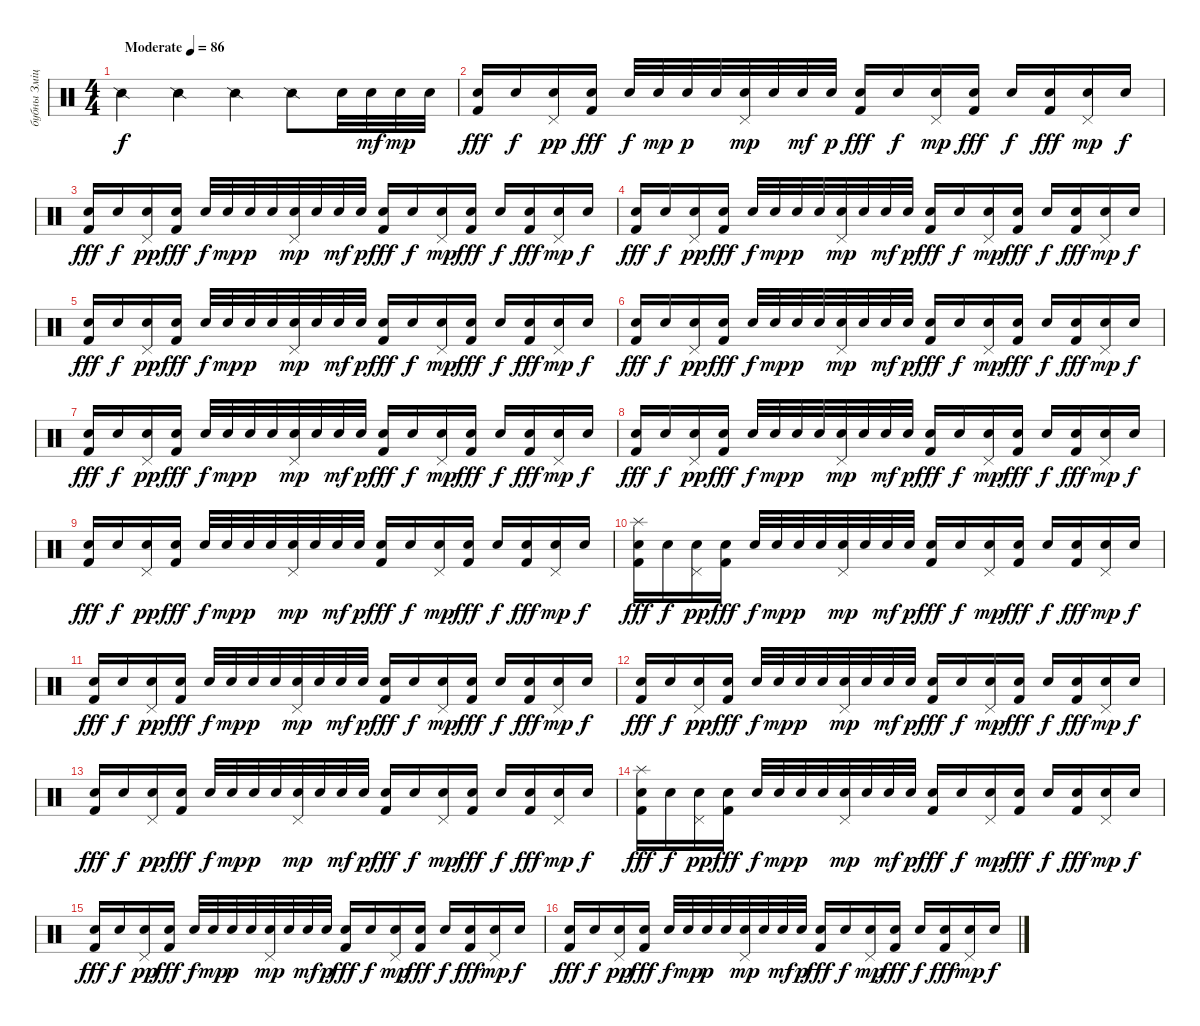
\track ("бубны Змiцер" "бубны Змiц") {instrument percussion}
\staff {score}
\articulation defaults
\ts (4 4)
\tempo (86 "Moderate")
\clef neutral
\ks c "Snare (side stick) 2".4{dy f} "Snare (side stick) 2".4 "Snare (side stick) 2".4 "Snare (side stick) 2".8 "Electric Snare (hit)".32 "Electric Snare (hit)".32{dy mf} "Electric Snare (hit)".32{dy mp} "Electric Snare (hit)".32
|
("Electric Snare (hit)" "Kick (hit) 2").16{dy fff} "Electric Snare (hit)".16{dy f} ("Pedal Hi-Hat (hit)" "Electric Snare (hit)").16{dy pp} ("Electric Snare (hit)" "Kick (hit) 2").16{dy fff} "Electric Snare (hit)".32{dy f} "Electric Snare (hit)".32{dy mp} "Electric Snare (hit)".32{dy p} "Electric Snare (hit)".32 ("Pedal Hi-Hat (hit)" "Electric Snare (hit)").32{dy mp} "Electric Snare (hit)".32 "Electric Snare (hit)".32{dy mf} "Electric Snare (hit)".32{dy p} ("Electric Snare (hit)" "Kick (hit) 2").16{dy fff} "Electric Snare (hit)".16{dy f} ("Pedal Hi-Hat (hit)" "Electric Snare (hit)").16{dy mp} ("Electric Snare (hit)" "Kick (hit) 2").16{dy fff} "Electric Snare (hit)".16{dy f} ("Electric Snare (hit)" "Kick (hit) 2").16{dy fff} ("Pedal Hi-Hat (hit)" "Electric Snare (hit)").16{dy mp} "Electric Snare (hit)".16{dy f} |
("Electric Snare (hit)" "Kick (hit) 2").16{dy fff} "Electric Snare (hit)".16{dy f} ("Pedal Hi-Hat (hit)" "Electric Snare (hit)").16{dy pp} ("Electric Snare (hit)" "Kick (hit) 2").16{dy fff} "Electric Snare (hit)".32{dy f} "Electric Snare (hit)".32{dy mp} "Electric Snare (hit)".32{dy p} "Electric Snare (hit)".32 ("Pedal Hi-Hat (hit)" "Electric Snare (hit)").32{dy mp} "Electric Snare (hit)".32 "Electric Snare (hit)".32{dy mf} "Electric Snare (hit)".32{dy p} ("Electric Snare (hit)" "Kick (hit) 2").16{dy fff} "Electric Snare (hit)".16{dy f} ("Pedal Hi-Hat (hit)" "Electric Snare (hit)").16{dy mp} ("Electric Snare (hit)" "Kick (hit) 2").16{dy fff} "Electric Snare (hit)".16{dy f} ("Electric Snare (hit)" "Kick (hit) 2").16{dy fff} ("Pedal Hi-Hat (hit)" "Electric Snare (hit)").16{dy mp} "Electric Snare (hit)".16{dy f} |
("Electric Snare (hit)" "Kick (hit) 2").16{dy fff} "Electric Snare (hit)".16{dy f} ("Pedal Hi-Hat (hit)" "Electric Snare (hit)").16{dy pp} ("Electric Snare (hit)" "Kick (hit) 2").16{dy fff} "Electric Snare (hit)".32{dy f} "Electric Snare (hit)".32{dy mp} "Electric Snare (hit)".32{dy p} "Electric Snare (hit)".32 ("Pedal Hi-Hat (hit)" "Electric Snare (hit)").32{dy mp} "Electric Snare (hit)".32 "Electric Snare (hit)".32{dy mf} "Electric Snare (hit)".32{dy p} ("Electric Snare (hit)" "Kick (hit) 2").16{dy fff} "Electric Snare (hit)".16{dy f} ("Pedal Hi-Hat (hit)" "Electric Snare (hit)").16{dy mp} ("Electric Snare (hit)" "Kick (hit) 2").16{dy fff} "Electric Snare (hit)".16{dy f} ("Electric Snare (hit)" "Kick (hit) 2").16{dy fff} ("Pedal Hi-Hat (hit)" "Electric Snare (hit)").16{dy mp} "Electric Snare (hit)".16{dy f} |
("Electric Snare (hit)" "Kick (hit) 2").16{dy fff} "Electric Snare (hit)".16{dy f} ("Pedal Hi-Hat (hit)" "Electric Snare (hit)").16{dy pp} ("Electric Snare (hit)" "Kick (hit) 2").16{dy fff} "Electric Snare (hit)".32{dy f} "Electric Snare (hit)".32{dy mp} "Electric Snare (hit)".32{dy p} "Electric Snare (hit)".32 ("Pedal Hi-Hat (hit)" "Electric Snare (hit)").32{dy mp} "Electric Snare (hit)".32 "Electric Snare (hit)".32{dy mf} "Electric Snare (hit)".32{dy p} ("Electric Snare (hit)" "Kick (hit) 2").16{dy fff} "Electric Snare (hit)".16{dy f} ("Pedal Hi-Hat (hit)" "Electric Snare (hit)").16{dy mp} ("Electric Snare (hit)" "Kick (hit) 2").16{dy fff} "Electric Snare (hit)".16{dy f} ("Electric Snare (hit)" "Kick (hit) 2").16{dy fff} ("Pedal Hi-Hat (hit)" "Electric Snare (hit)").16{dy mp} "Electric Snare (hit)".16{dy f} |
("Electric Snare (hit)" "Kick (hit) 2").16{dy fff} "Electric Snare (hit)".16{dy f} ("Pedal Hi-Hat (hit)" "Electric Snare (hit)").16{dy pp} ("Electric Snare (hit)" "Kick (hit) 2").16{dy fff} "Electric Snare (hit)".32{dy f} "Electric Snare (hit)".32{dy mp} "Electric Snare (hit)".32{dy p} "Electric Snare (hit)".32 ("Pedal Hi-Hat (hit)" "Electric Snare (hit)").32{dy mp} "Electric Snare (hit)".32 "Electric Snare (hit)".32{dy mf} "Electric Snare (hit)".32{dy p} ("Electric Snare (hit)" "Kick (hit) 2").16{dy fff} "Electric Snare (hit)".16{dy f} ("Pedal Hi-Hat (hit)" "Electric Snare (hit)").16{dy mp} ("Electric Snare (hit)" "Kick (hit) 2").16{dy fff} "Electric Snare (hit)".16{dy f} ("Electric Snare (hit)" "Kick (hit) 2").16{dy fff} ("Pedal Hi-Hat (hit)" "Electric Snare (hit)").16{dy mp} "Electric Snare (hit)".16{dy f} |
("Electric Snare (hit)" "Kick (hit) 2").16{dy fff} "Electric Snare (hit)".16{dy f} ("Pedal Hi-Hat (hit)" "Electric Snare (hit)").16{dy pp} ("Electric Snare (hit)" "Kick (hit) 2").16{dy fff} "Electric Snare (hit)".32{dy f} "Electric Snare (hit)".32{dy mp} "Electric Snare (hit)".32{dy p} "Electric Snare (hit)".32 ("Pedal Hi-Hat (hit)" "Electric Snare (hit)").32{dy mp} "Electric Snare (hit)".32 "Electric Snare (hit)".32{dy mf} "Electric Snare (hit)".32{dy p} ("Electric Snare (hit)" "Kick (hit) 2").16{dy fff} "Electric Snare (hit)".16{dy f} ("Pedal Hi-Hat (hit)" "Electric Snare (hit)").16{dy mp} ("Electric Snare (hit)" "Kick (hit) 2").16{dy fff} "Electric Snare (hit)".16{dy f} ("Electric Snare (hit)" "Kick (hit) 2").16{dy fff} ("Pedal Hi-Hat (hit)" "Electric Snare (hit)").16{dy mp} "Electric Snare (hit)".16{dy f} |
("Electric Snare (hit)" "Kick (hit) 2").16{dy fff} "Electric Snare (hit)".16{dy f} ("Pedal Hi-Hat (hit)" "Electric Snare (hit)").16{dy pp} ("Electric Snare (hit)" "Kick (hit) 2").16{dy fff} "Electric Snare (hit)".32{dy f} "Electric Snare (hit)".32{dy mp} "Electric Snare (hit)".32{dy p} "Electric Snare (hit)".32 ("Pedal Hi-Hat (hit)" "Electric Snare (hit)").32{dy mp} "Electric Snare (hit)".32 "Electric Snare (hit)".32{dy mf} "Electric Snare (hit)".32{dy p} ("Electric Snare (hit)" "Kick (hit) 2").16{dy fff} "Electric Snare (hit)".16{dy f} ("Pedal Hi-Hat (hit)" "Electric Snare (hit)").16{dy mp} ("Electric Snare (hit)" "Kick (hit) 2").16{dy fff} "Electric Snare (hit)".16{dy f} ("Electric Snare (hit)" "Kick (hit) 2").16{dy fff} ("Pedal Hi-Hat (hit)" "Electric Snare (hit)").16{dy mp} "Electric Snare (hit)".16{dy f} |
("Electric Snare (hit)" "Kick (hit) 2").16{dy fff} "Electric Snare (hit)".16{dy f} ("Pedal Hi-Hat (hit)" "Electric Snare (hit)").16{dy pp} ("Electric Snare (hit)" "Kick (hit) 2").16{dy fff} "Electric Snare (hit)".32{dy f} "Electric Snare (hit)".32{dy mp} "Electric Snare (hit)".32{dy p} "Electric Snare (hit)".32 ("Pedal Hi-Hat (hit)" "Electric Snare (hit)").32{dy mp} "Electric Snare (hit)".32 "Electric Snare (hit)".32{dy mf} "Electric Snare (hit)".32{dy p} ("Electric Snare (hit)" "Kick (hit) 2").16{dy fff} "Electric Snare (hit)".16{dy f} ("Pedal Hi-Hat (hit)" "Electric Snare (hit)").16{dy mp} ("Electric Snare (hit)" "Kick (hit) 2").16{dy fff} "Electric Snare (hit)".16{dy f} ("Electric Snare (hit)" "Kick (hit) 2").16{dy fff} ("Pedal Hi-Hat (hit)" "Electric Snare (hit)").16{dy mp} "Electric Snare (hit)".16{dy f} |
("Splash (hit)" "Electric Snare (hit)" "Kick (hit) 2").16{dy fff} "Electric Snare (hit)".16{dy f} ("Pedal Hi-Hat (hit)" "Electric Snare (hit)").16{dy pp} ("Electric Snare (hit)" "Kick (hit) 2").16{dy fff} "Electric Snare (hit)".32{dy f} "Electric Snare (hit)".32{dy mp} "Electric Snare (hit)".32{dy p} "Electric Snare (hit)".32 ("Pedal Hi-Hat (hit)" "Electric Snare (hit)").32{dy mp} "Electric Snare (hit)".32 "Electric Snare (hit)".32{dy mf} "Electric Snare (hit)".32{dy p} ("Electric Snare (hit)" "Kick (hit) 2").16{dy fff} "Electric Snare (hit)".16{dy f} ("Pedal Hi-Hat (hit)" "Electric Snare (hit)").16{dy mp} ("Electric Snare (hit)" "Kick (hit) 2").16{dy fff} "Electric Snare (hit)".16{dy f} ("Electric Snare (hit)" "Kick (hit) 2").16{dy fff} ("Pedal Hi-Hat (hit)" "Electric Snare (hit)").16{dy mp} "Electric Snare (hit)".16{dy f} |
("Electric Snare (hit)" "Kick (hit) 2").16{dy fff} "Electric Snare (hit)".16{dy f} ("Pedal Hi-Hat (hit)" "Electric Snare (hit)").16{dy pp} ("Electric Snare (hit)" "Kick (hit) 2").16{dy fff} "Electric Snare (hit)".32{dy f} "Electric Snare (hit)".32{dy mp} "Electric Snare (hit)".32{dy p} "Electric Snare (hit)".32 ("Pedal Hi-Hat (hit)" "Electric Snare (hit)").32{dy mp} "Electric Snare (hit)".32 "Electric Snare (hit)".32{dy mf} "Electric Snare (hit)".32{dy p} ("Electric Snare (hit)" "Kick (hit) 2").16{dy fff} "Electric Snare (hit)".16{dy f} ("Pedal Hi-Hat (hit)" "Electric Snare (hit)").16{dy mp} ("Electric Snare (hit)" "Kick (hit) 2").16{dy fff} "Electric Snare (hit)".16{dy f} ("Electric Snare (hit)" "Kick (hit) 2").16{dy fff} ("Pedal Hi-Hat (hit)" "Electric Snare (hit)").16{dy mp} "Electric Snare (hit)".16{dy f} |
("Electric Snare (hit)" "Kick (hit) 2").16{dy fff} "Electric Snare (hit)".16{dy f} ("Pedal Hi-Hat (hit)" "Electric Snare (hit)").16{dy pp} ("Electric Snare (hit)" "Kick (hit) 2").16{dy fff} "Electric Snare (hit)".32{dy f} "Electric Snare (hit)".32{dy mp} "Electric Snare (hit)".32{dy p} "Electric Snare (hit)".32 ("Pedal Hi-Hat (hit)" "Electric Snare (hit)").32{dy mp} "Electric Snare (hit)".32 "Electric Snare (hit)".32{dy mf} "Electric Snare (hit)".32{dy p} ("Electric Snare (hit)" "Kick (hit) 2").16{dy fff} "Electric Snare (hit)".16{dy f} ("Pedal Hi-Hat (hit)" "Electric Snare (hit)").16{dy mp} ("Electric Snare (hit)" "Kick (hit) 2").16{dy fff} "Electric Snare (hit)".16{dy f} ("Electric Snare (hit)" "Kick (hit) 2").16{dy fff} ("Pedal Hi-Hat (hit)" "Electric Snare (hit)").16{dy mp} "Electric Snare (hit)".16{dy f} |
("Electric Snare (hit)" "Kick (hit) 2").16{dy fff} "Electric Snare (hit)".16{dy f} ("Pedal Hi-Hat (hit)" "Electric Snare (hit)").16{dy pp} ("Electric Snare (hit)" "Kick (hit) 2").16{dy fff} "Electric Snare (hit)".32{dy f} "Electric Snare (hit)".32{dy mp} "Electric Snare (hit)".32{dy p} "Electric Snare (hit)".32 ("Pedal Hi-Hat (hit)" "Electric Snare (hit)").32{dy mp} "Electric Snare (hit)".32 "Electric Snare (hit)".32{dy mf} "Electric Snare (hit)".32{dy p} ("Electric Snare (hit)" "Kick (hit) 2").16{dy fff} "Electric Snare (hit)".16{dy f} ("Pedal Hi-Hat (hit)" "Electric Snare (hit)").16{dy mp} ("Electric Snare (hit)" "Kick (hit) 2").16{dy fff} "Electric Snare (hit)".16{dy f} ("Electric Snare (hit)" "Kick (hit) 2").16{dy fff} ("Pedal Hi-Hat (hit)" "Electric Snare (hit)").16{dy mp} "Electric Snare (hit)".16{dy f} |
("Splash (hit)" "Electric Snare (hit)" "Kick (hit) 2").16{dy fff} "Electric Snare (hit)".16{dy f} ("Pedal Hi-Hat (hit)" "Electric Snare (hit)").16{dy pp} ("Electric Snare (hit)" "Kick (hit) 2").16{dy fff} "Electric Snare (hit)".32{dy f} "Electric Snare (hit)".32{dy mp} "Electric Snare (hit)".32{dy p} "Electric Snare (hit)".32 ("Pedal Hi-Hat (hit)" "Electric Snare (hit)").32{dy mp} "Electric Snare (hit)".32 "Electric Snare (hit)".32{dy mf} "Electric Snare (hit)".32{dy p} ("Electric Snare (hit)" "Kick (hit) 2").16{dy fff} "Electric Snare (hit)".16{dy f} ("Pedal Hi-Hat (hit)" "Electric Snare (hit)").16{dy mp} ("Electric Snare (hit)" "Kick (hit) 2").16{dy fff} "Electric Snare (hit)".16{dy f} ("Electric Snare (hit)" "Kick (hit) 2").16{dy fff} ("Pedal Hi-Hat (hit)" "Electric Snare (hit)").16{dy mp} "Electric Snare (hit)".16{dy f} |
("Electric Snare (hit)" "Kick (hit) 2").16{dy fff} "Electric Snare (hit)".16{dy f} ("Pedal Hi-Hat (hit)" "Electric Snare (hit)").16{dy pp} ("Electric Snare (hit)" "Kick (hit) 2").16{dy fff} "Electric Snare (hit)".32{dy f} "Electric Snare (hit)".32{dy mp} "Electric Snare (hit)".32{dy p} "Electric Snare (hit)".32 ("Pedal Hi-Hat (hit)" "Electric Snare (hit)").32{dy mp} "Electric Snare (hit)".32 "Electric Snare (hit)".32{dy mf} "Electric Snare (hit)".32{dy p} ("Electric Snare (hit)" "Kick (hit) 2").16{dy fff} "Electric Snare (hit)".16{dy f} ("Pedal Hi-Hat (hit)" "Electric Snare (hit)").16{dy mp} ("Electric Snare (hit)" "Kick (hit) 2").16{dy fff} "Electric Snare (hit)".16{dy f} ("Electric Snare (hit)" "Kick (hit) 2").16{dy fff} ("Pedal Hi-Hat (hit)" "Electric Snare (hit)").16{dy mp} "Electric Snare (hit)".16{dy f} |
("Electric Snare (hit)" "Kick (hit) 2").16{dy fff} "Electric Snare (hit)".16{dy f} ("Pedal Hi-Hat (hit)" "Electric Snare (hit)").16{dy pp} ("Electric Snare (hit)" "Kick (hit) 2").16{dy fff} "Electric Snare (hit)".32{dy f} "Electric Snare (hit)".32{dy mp} "Electric Snare (hit)".32{dy p} "Electric Snare (hit)".32 ("Pedal Hi-Hat (hit)" "Electric Snare (hit)").32{dy mp} "Electric Snare (hit)".32 "Electric Snare (hit)".32{dy mf} "Electric Snare (hit)".32{dy p} ("Electric Snare (hit)" "Kick (hit) 2").16{dy fff} "Electric Snare (hit)".16{dy f} ("Pedal Hi-Hat (hit)" "Electric Snare (hit)").16{dy mp} ("Electric Snare (hit)" "Kick (hit) 2").16{dy fff} "Electric Snare (hit)".16{dy f} ("Electric Snare (hit)" "Kick (hit) 2").16{dy fff} ("Pedal Hi-Hat (hit)" "Electric Snare (hit)").16{dy mp} "Electric Snare (hit)".16{dy f}
